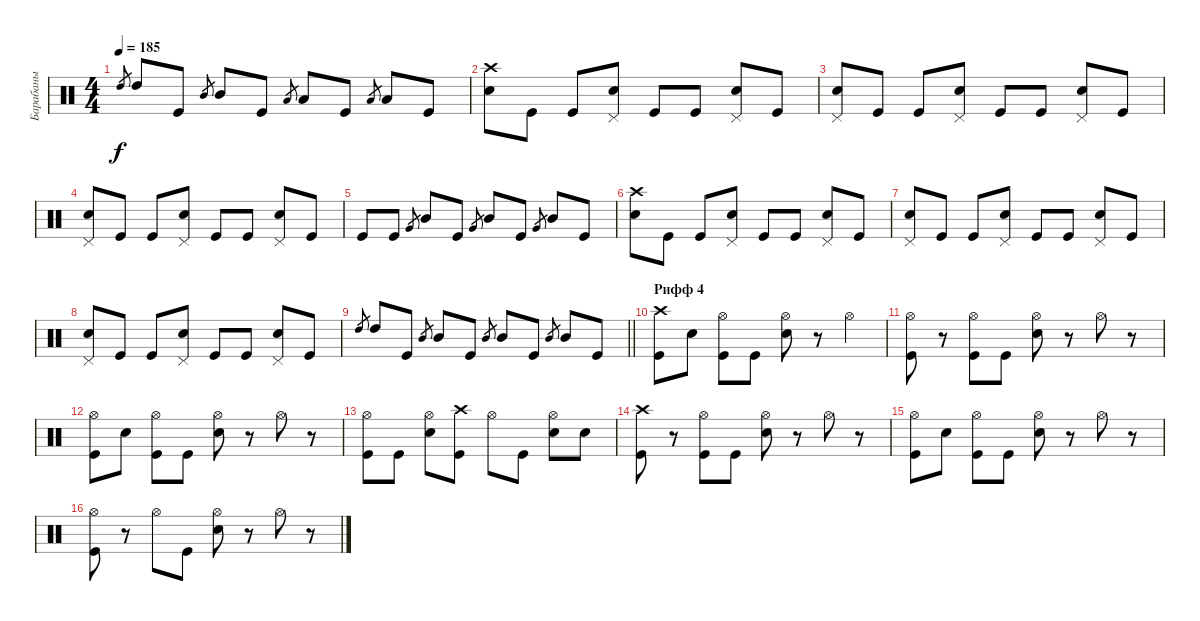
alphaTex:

\track ("Барабаны" "Барабаны") {instrument percussion}
\staff {score}
\articulation defaults
\ts (4 4)
\tempo 185
\clef neutral
\ks c "High Tom (hit)".8{gr dy f} "High Tom (hit)".8 "Kick (hit)".8 "Mid Tom (hit)".8{gr} "Mid Tom (hit)".8 "Kick (hit)".8 "Low Tom (hit)".8{gr} "Low Tom (hit)".8 "Kick (hit)".8 "Low Tom (hit)".8{gr} "Low Tom (hit)".8 "Kick (hit)".8
|
("Snare (hit) 2" "Crash high (hit)").8 "Kick (hit)".8 "Kick (hit)".8 ("Snare (hit) 2" "Pedal Hi-Hat (hit)").8 "Kick (hit)".8 "Kick (hit)".8 ("Snare (hit) 2" "Pedal Hi-Hat (hit)").8 "Kick (hit)".8 |
("Snare (hit) 2" "Pedal Hi-Hat (hit)").8 "Kick (hit)".8 "Kick (hit)".8 ("Snare (hit) 2" "Pedal Hi-Hat (hit)").8 "Kick (hit)".8 "Kick (hit)".8 ("Snare (hit) 2" "Pedal Hi-Hat (hit)").8 "Kick (hit)".8 |
("Snare (hit) 2" "Pedal Hi-Hat (hit)").8 "Kick (hit)".8 "Kick (hit)".8 ("Snare (hit) 2" "Pedal Hi-Hat (hit)").8 "Kick (hit)".8 "Kick (hit)".8 ("Snare (hit) 2" "Pedal Hi-Hat (hit)").8 "Kick (hit)".8 |
"Kick (hit)".8 "Kick (hit)".8 "Very Low Tom (hit)".8{gr} "Mid Tom (hit)".8 "Kick (hit)".8 "Very Low Tom (hit)".8{gr} "Mid Tom (hit)".8 "Kick (hit)".8 "Very Low Tom (hit)".8{gr} "Mid Tom (hit)".8 "Kick (hit)".8 |
("Snare (hit) 2" "Crash high (hit)").8 "Kick (hit)".8 "Kick (hit)".8 ("Snare (hit) 2" "Pedal Hi-Hat (hit)").8 "Kick (hit)".8 "Kick (hit)".8 ("Snare (hit) 2" "Pedal Hi-Hat (hit)").8 "Kick (hit)".8 |
("Snare (hit) 2" "Pedal Hi-Hat (hit)").8 "Kick (hit)".8 "Kick (hit)".8 ("Snare (hit) 2" "Pedal Hi-Hat (hit)").8 "Kick (hit)".8 "Kick (hit)".8 ("Snare (hit) 2" "Pedal Hi-Hat (hit)").8 "Kick (hit)".8 |
("Snare (hit) 2" "Pedal Hi-Hat (hit)").8 "Kick (hit)".8 "Kick (hit)".8 ("Snare (hit) 2" "Pedal Hi-Hat (hit)").8 "Kick (hit)".8 "Kick (hit)".8 ("Snare (hit) 2" "Pedal Hi-Hat (hit)").8 "Kick (hit)".8 |
\barLineRight lightlight "High Tom (hit)".8{gr} "High Tom (hit)".8 "Kick (hit)".8 "Mid Tom (hit)".8{gr} "Mid Tom (hit)".8 "Kick (hit)".8 "Mid Tom (hit)".8{gr} "Mid Tom (hit)".8 "Kick (hit)".8 "Mid Tom (hit)".8{gr} "Mid Tom (hit)".8 "Kick (hit)".8
|
\section ("" "Рифф 4")
("Kick (hit)" "Crash high (hit)").8 "Snare (hit) 2".8 ("Kick (hit)" "Hi-Hat (open)").8 "Kick (hit)".8 ("Snare (hit) 2" "Hi-Hat (open)").8 r.8 "Hi-Hat (open)".4 |
("Kick (hit)" "Hi-Hat (open)").8 r.8 ("Kick (hit)" "Hi-Hat (open)").8 "Kick (hit)".8 ("Snare (hit) 2" "Hi-Hat (open)").8 r.8 "Hi-Hat (open)".8 r.8 |
("Kick (hit)" "Hi-Hat (open)").8 "Snare (hit) 2".8 ("Kick (hit)" "Hi-Hat (open)").8 "Kick (hit)".8 ("Snare (hit) 2" "Hi-Hat (open)").8 r.8 "Hi-Hat (open)".8 r.8 |
("Kick (hit)" "Hi-Hat (open)").8 "Kick (hit)".8 ("Snare (hit) 2" "Hi-Hat (open)").8 ("Kick (hit)" "Crash high (hit)").8 "Hi-Hat (open)".8 "Kick (hit)".8 ("Snare (hit) 2" "Hi-Hat (open)").8 "Snare (hit) 2".8 |
("Kick (hit)" "Crash high (hit)").8 r.8 ("Kick (hit)" "Hi-Hat (open)").8 "Kick (hit)".8 ("Snare (hit) 2" "Hi-Hat (open)").8 r.8 "Hi-Hat (open)".8 r.8 |
("Kick (hit)" "Hi-Hat (open)").8 "Snare (hit) 2".8 ("Kick (hit)" "Hi-Hat (open)").8 "Kick (hit)".8 ("Snare (hit) 2" "Hi-Hat (open)").8 r.8 "Hi-Hat (open)".8 r.8 |
("Kick (hit)" "Hi-Hat (open)").8 r.8 "Hi-Hat (open)".8 "Kick (hit)".8 ("Snare (hit) 2" "Hi-Hat (open)").8 r.8 "Hi-Hat (open)".8 r.8
